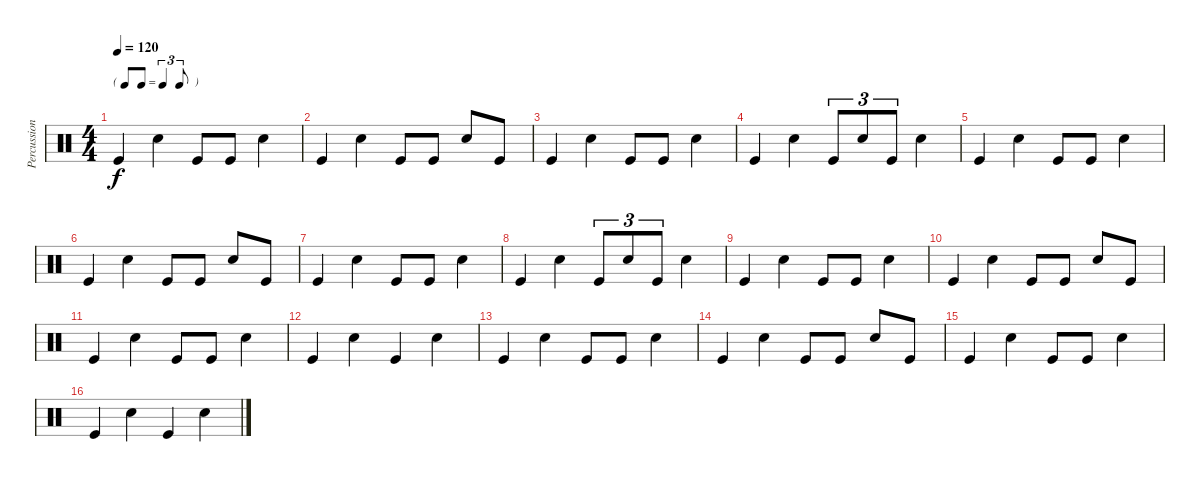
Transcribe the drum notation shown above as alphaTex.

\track ("Percussion" "Percussion") {instrument percussion}
\staff {score}
\articulation defaults
\ts (4 4)
\tf triplet8th
\tempo 120
\clef neutral
\ks c "Kick (hit)".4{dy f} "Electric Snare (hit)".4 "Kick (hit)".8 "Kick (hit)".8 "Electric Snare (hit)".4
|
"Kick (hit)".4 "Electric Snare (hit)".4 "Kick (hit)".8 "Kick (hit)".8 "Electric Snare (hit)".8 "Kick (hit)".8 |
"Kick (hit)".4 "Electric Snare (hit)".4 "Kick (hit)".8 "Kick (hit)".8 "Electric Snare (hit)".4 |
"Kick (hit)".4 "Electric Snare (hit)".4 "Kick (hit)".8{tu (3 2)} "Snare (hit) 2".8{tu (3 2)} "Kick (hit)".8{tu (3 2)} "Electric Snare (hit)".4 |
"Kick (hit)".4 "Electric Snare (hit)".4 "Kick (hit)".8 "Kick (hit)".8 "Electric Snare (hit)".4 |
"Kick (hit)".4 "Electric Snare (hit)".4 "Kick (hit)".8 "Kick (hit)".8 "Electric Snare (hit)".8 "Kick (hit)".8 |
"Kick (hit)".4 "Electric Snare (hit)".4 "Kick (hit)".8 "Kick (hit)".8 "Electric Snare (hit)".4 |
"Kick (hit)".4 "Electric Snare (hit)".4 "Kick (hit)".8{tu (3 2)} "Snare (hit) 2".8{tu (3 2)} "Kick (hit)".8{tu (3 2)} "Electric Snare (hit)".4 |
"Kick (hit)".4 "Electric Snare (hit)".4 "Kick (hit)".8 "Kick (hit)".8 "Electric Snare (hit)".4 |
"Kick (hit)".4 "Electric Snare (hit)".4 "Kick (hit)".8 "Kick (hit)".8 "Electric Snare (hit)".8 "Kick (hit)".8 |
"Kick (hit)".4 "Electric Snare (hit)".4 "Kick (hit)".8 "Kick (hit)".8 "Electric Snare (hit)".4 |
"Kick (hit)".4 "Electric Snare (hit)".4 "Kick (hit)".4 "Electric Snare (hit)".4 |
"Kick (hit)".4 "Electric Snare (hit)".4 "Kick (hit)".8 "Kick (hit)".8 "Electric Snare (hit)".4 |
"Kick (hit)".4 "Electric Snare (hit)".4 "Kick (hit)".8 "Kick (hit)".8 "Electric Snare (hit)".8 "Kick (hit)".8 |
"Kick (hit)".4 "Electric Snare (hit)".4 "Kick (hit)".8 "Kick (hit)".8 "Electric Snare (hit)".4 |
"Kick (hit)".4 "Electric Snare (hit)".4 "Kick (hit)".4 "Electric Snare (hit)".4
